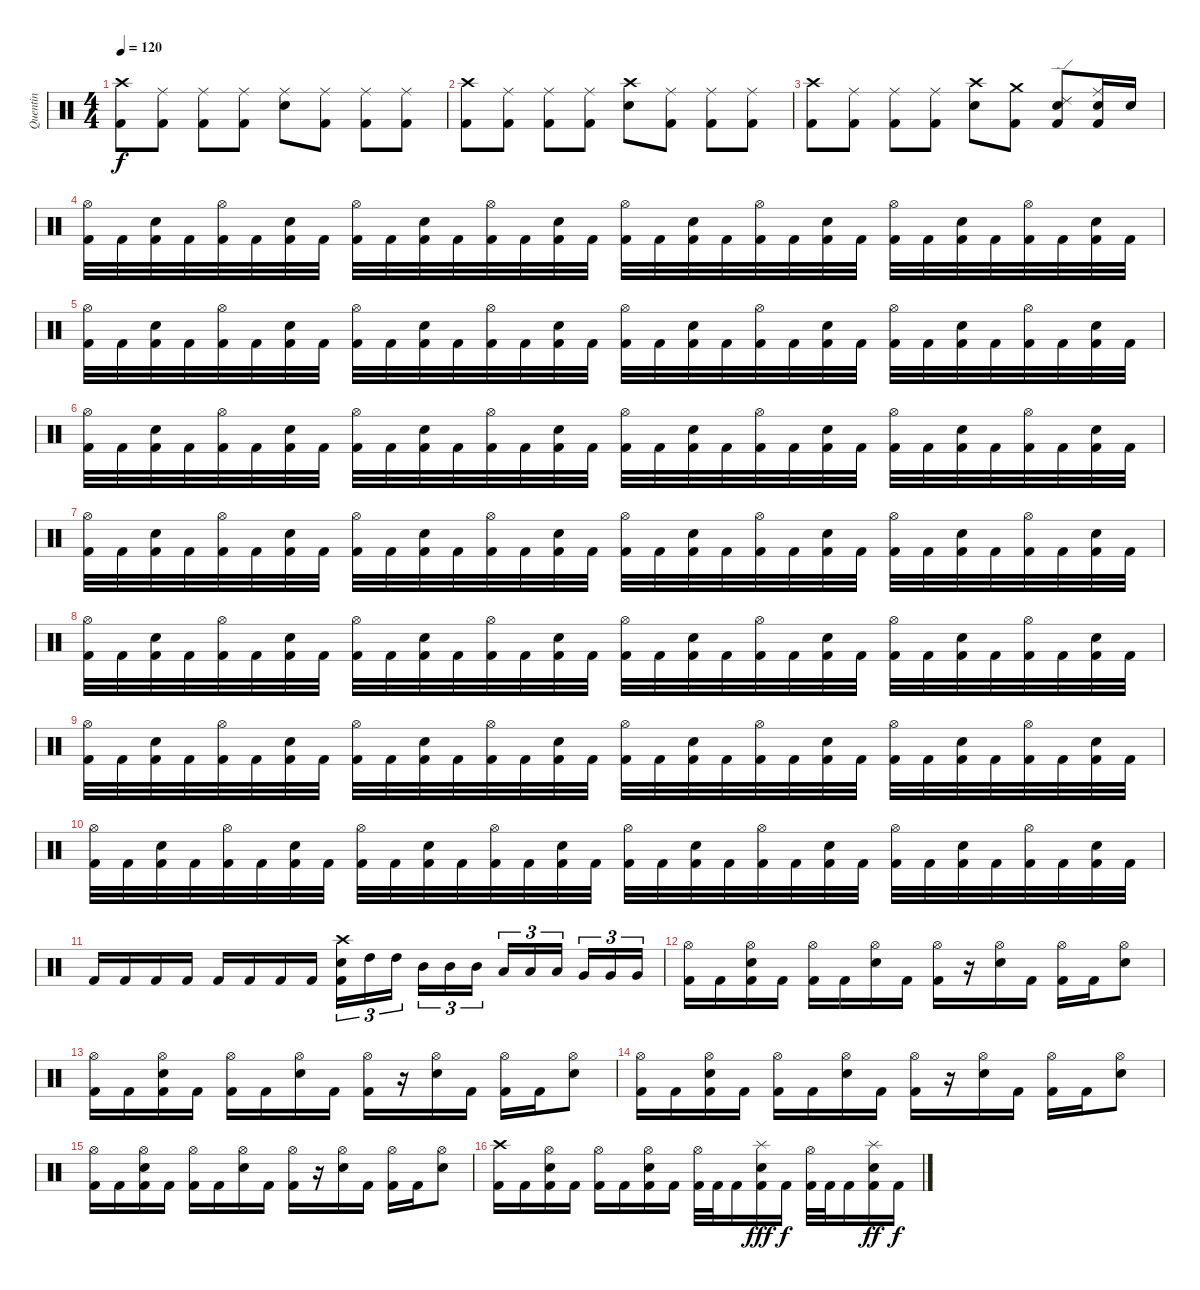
\track ("Quentin" "Quentin") {instrument percussion}
\staff {score}
\articulation defaults
\ts (4 4)
\tempo 120
\clef neutral
\ks c
("Crash high (hit)" "Kick (hit) 2").8{dy f} ("Ride (middle)" "Kick (hit) 2").8 ("Ride (middle)" "Kick (hit) 2").8 ("Ride (middle)" "Kick (hit) 2").8 ("Ride (middle)" "Electric Snare (hit)").8 ("Ride (middle)" "Kick (hit) 2").8 ("Ride (middle)" "Kick (hit) 2").8 ("Ride (middle)" "Kick (hit) 2").8 |
("Crash high (hit)" "Kick (hit) 2").8 ("Ride (middle)" "Kick (hit) 2").8 ("Ride (middle)" "Kick (hit) 2").8 ("Ride (middle)" "Kick (hit) 2").8 ("Crash high (hit)" "Electric Snare (hit)").8 ("Ride (middle)" "Kick (hit) 2").8 ("Ride (middle)" "Kick (hit) 2").8 ("Ride (middle)" "Kick (hit) 2").8 |
("Crash high (hit)" "Kick (hit) 2").8 ("Ride (middle)" "Kick (hit) 2").8 ("Ride (middle)" "Kick (hit) 2").8 ("Ride (middle)" "Kick (hit) 2").8 ("Crash high (hit)" "Electric Snare (hit)").8 ("Crash medium (hit)" "Kick (hit) 2").8 ("Ride (edge) 2" "Electric Snare (hit)" "Kick (hit) 2").8 ("Ride (middle)" "Electric Snare (hit)" "Kick (hit) 2").16 "Electric Snare (hit)".16 |
("Hi-Hat (open)" "Kick (hit) 2").32 "Kick (hit) 2".32 ("Snare (hit) 2" "Kick (hit) 2").32 "Kick (hit) 2".32 ("Hi-Hat (open)" "Kick (hit) 2").32 "Kick (hit) 2".32 ("Snare (hit) 2" "Kick (hit) 2").32 "Kick (hit) 2".32 ("Hi-Hat (open)" "Kick (hit) 2").32 "Kick (hit) 2".32 ("Snare (hit) 2" "Kick (hit) 2").32 "Kick (hit) 2".32 ("Hi-Hat (open)" "Kick (hit) 2").32 "Kick (hit) 2".32 ("Snare (hit) 2" "Kick (hit) 2").32 "Kick (hit) 2".32 ("Hi-Hat (open)" "Kick (hit) 2").32 "Kick (hit) 2".32 ("Snare (hit) 2" "Kick (hit) 2").32 "Kick (hit) 2".32 ("Hi-Hat (open)" "Kick (hit) 2").32 "Kick (hit) 2".32 ("Snare (hit) 2" "Kick (hit) 2").32 "Kick (hit) 2".32 ("Hi-Hat (open)" "Kick (hit) 2").32 "Kick (hit) 2".32 ("Snare (hit) 2" "Kick (hit) 2").32 "Kick (hit) 2".32 ("Hi-Hat (open)" "Kick (hit) 2").32 "Kick (hit) 2".32 ("Snare (hit) 2" "Kick (hit) 2").32 "Kick (hit) 2".32 |
("Hi-Hat (open)" "Kick (hit) 2").32 "Kick (hit) 2".32 ("Snare (hit) 2" "Kick (hit) 2").32 "Kick (hit) 2".32 ("Hi-Hat (open)" "Kick (hit) 2").32 "Kick (hit) 2".32 ("Snare (hit) 2" "Kick (hit) 2").32 "Kick (hit) 2".32 ("Hi-Hat (open)" "Kick (hit) 2").32 "Kick (hit) 2".32 ("Snare (hit) 2" "Kick (hit) 2").32 "Kick (hit) 2".32 ("Hi-Hat (open)" "Kick (hit) 2").32 "Kick (hit) 2".32 ("Snare (hit) 2" "Kick (hit) 2").32 "Kick (hit) 2".32 ("Hi-Hat (open)" "Kick (hit) 2").32 "Kick (hit) 2".32 ("Snare (hit) 2" "Kick (hit) 2").32 "Kick (hit) 2".32 ("Hi-Hat (open)" "Kick (hit) 2").32 "Kick (hit) 2".32 ("Snare (hit) 2" "Kick (hit) 2").32 "Kick (hit) 2".32 ("Hi-Hat (open)" "Kick (hit) 2").32 "Kick (hit) 2".32 ("Snare (hit) 2" "Kick (hit) 2").32 "Kick (hit) 2".32 ("Hi-Hat (open)" "Kick (hit) 2").32 "Kick (hit) 2".32 ("Snare (hit) 2" "Kick (hit) 2").32 "Kick (hit) 2".32 |
("Hi-Hat (open)" "Kick (hit) 2").32 "Kick (hit) 2".32 ("Snare (hit) 2" "Kick (hit) 2").32 "Kick (hit) 2".32 ("Hi-Hat (open)" "Kick (hit) 2").32 "Kick (hit) 2".32 ("Snare (hit) 2" "Kick (hit) 2").32 "Kick (hit) 2".32 ("Hi-Hat (open)" "Kick (hit) 2").32 "Kick (hit) 2".32 ("Snare (hit) 2" "Kick (hit) 2").32 "Kick (hit) 2".32 ("Hi-Hat (open)" "Kick (hit) 2").32 "Kick (hit) 2".32 ("Snare (hit) 2" "Kick (hit) 2").32 "Kick (hit) 2".32 ("Hi-Hat (open)" "Kick (hit) 2").32 "Kick (hit) 2".32 ("Snare (hit) 2" "Kick (hit) 2").32 "Kick (hit) 2".32 ("Hi-Hat (open)" "Kick (hit) 2").32 "Kick (hit) 2".32 ("Snare (hit) 2" "Kick (hit) 2").32 "Kick (hit) 2".32 ("Hi-Hat (open)" "Kick (hit) 2").32 "Kick (hit) 2".32 ("Snare (hit) 2" "Kick (hit) 2").32 "Kick (hit) 2".32 ("Hi-Hat (open)" "Kick (hit) 2").32 "Kick (hit) 2".32 ("Snare (hit) 2" "Kick (hit) 2").32 "Kick (hit) 2".32 |
("Hi-Hat (open)" "Kick (hit) 2").32 "Kick (hit) 2".32 ("Snare (hit) 2" "Kick (hit) 2").32 "Kick (hit) 2".32 ("Hi-Hat (open)" "Kick (hit) 2").32 "Kick (hit) 2".32 ("Snare (hit) 2" "Kick (hit) 2").32 "Kick (hit) 2".32 ("Hi-Hat (open)" "Kick (hit) 2").32 "Kick (hit) 2".32 ("Snare (hit) 2" "Kick (hit) 2").32 "Kick (hit) 2".32 ("Hi-Hat (open)" "Kick (hit) 2").32 "Kick (hit) 2".32 ("Snare (hit) 2" "Kick (hit) 2").32 "Kick (hit) 2".32 ("Hi-Hat (open)" "Kick (hit) 2").32 "Kick (hit) 2".32 ("Snare (hit) 2" "Kick (hit) 2").32 "Kick (hit) 2".32 ("Hi-Hat (open)" "Kick (hit) 2").32 "Kick (hit) 2".32 ("Snare (hit) 2" "Kick (hit) 2").32 "Kick (hit) 2".32 ("Hi-Hat (open)" "Kick (hit) 2").32 "Kick (hit) 2".32 ("Snare (hit) 2" "Kick (hit) 2").32 "Kick (hit) 2".32 ("Hi-Hat (open)" "Kick (hit) 2").32 "Kick (hit) 2".32 ("Snare (hit) 2" "Kick (hit) 2").32 "Kick (hit) 2".32 |
("Hi-Hat (open)" "Kick (hit) 2").32 "Kick (hit) 2".32 ("Snare (hit) 2" "Kick (hit) 2").32 "Kick (hit) 2".32 ("Hi-Hat (open)" "Kick (hit) 2").32 "Kick (hit) 2".32 ("Snare (hit) 2" "Kick (hit) 2").32 "Kick (hit) 2".32 ("Hi-Hat (open)" "Kick (hit) 2").32 "Kick (hit) 2".32 ("Snare (hit) 2" "Kick (hit) 2").32 "Kick (hit) 2".32 ("Hi-Hat (open)" "Kick (hit) 2").32 "Kick (hit) 2".32 ("Snare (hit) 2" "Kick (hit) 2").32 "Kick (hit) 2".32 ("Hi-Hat (open)" "Kick (hit) 2").32 "Kick (hit) 2".32 ("Snare (hit) 2" "Kick (hit) 2").32 "Kick (hit) 2".32 ("Hi-Hat (open)" "Kick (hit) 2").32 "Kick (hit) 2".32 ("Snare (hit) 2" "Kick (hit) 2").32 "Kick (hit) 2".32 ("Hi-Hat (open)" "Kick (hit) 2").32 "Kick (hit) 2".32 ("Snare (hit) 2" "Kick (hit) 2").32 "Kick (hit) 2".32 ("Hi-Hat (open)" "Kick (hit) 2").32 "Kick (hit) 2".32 ("Snare (hit) 2" "Kick (hit) 2").32 "Kick (hit) 2".32 |
("Hi-Hat (open)" "Kick (hit) 2").32 "Kick (hit) 2".32 ("Snare (hit) 2" "Kick (hit) 2").32 "Kick (hit) 2".32 ("Hi-Hat (open)" "Kick (hit) 2").32 "Kick (hit) 2".32 ("Snare (hit) 2" "Kick (hit) 2").32 "Kick (hit) 2".32 ("Hi-Hat (open)" "Kick (hit) 2").32 "Kick (hit) 2".32 ("Snare (hit) 2" "Kick (hit) 2").32 "Kick (hit) 2".32 ("Hi-Hat (open)" "Kick (hit) 2").32 "Kick (hit) 2".32 ("Snare (hit) 2" "Kick (hit) 2").32 "Kick (hit) 2".32 ("Hi-Hat (open)" "Kick (hit) 2").32 "Kick (hit) 2".32 ("Snare (hit) 2" "Kick (hit) 2").32 "Kick (hit) 2".32 ("Hi-Hat (open)" "Kick (hit) 2").32 "Kick (hit) 2".32 ("Snare (hit) 2" "Kick (hit) 2").32 "Kick (hit) 2".32 ("Hi-Hat (open)" "Kick (hit) 2").32 "Kick (hit) 2".32 ("Snare (hit) 2" "Kick (hit) 2").32 "Kick (hit) 2".32 ("Hi-Hat (open)" "Kick (hit) 2").32 "Kick (hit) 2".32 ("Snare (hit) 2" "Kick (hit) 2").32 "Kick (hit) 2".32 |
("Hi-Hat (open)" "Kick (hit) 2").32 "Kick (hit) 2".32 ("Snare (hit) 2" "Kick (hit) 2").32 "Kick (hit) 2".32 ("Hi-Hat (open)" "Kick (hit) 2").32 "Kick (hit) 2".32 ("Snare (hit) 2" "Kick (hit) 2").32 "Kick (hit) 2".32 ("Hi-Hat (open)" "Kick (hit) 2").32 "Kick (hit) 2".32 ("Snare (hit) 2" "Kick (hit) 2").32 "Kick (hit) 2".32 ("Hi-Hat (open)" "Kick (hit) 2").32 "Kick (hit) 2".32 ("Snare (hit) 2" "Kick (hit) 2").32 "Kick (hit) 2".32 ("Hi-Hat (open)" "Kick (hit) 2").32 "Kick (hit) 2".32 ("Snare (hit) 2" "Kick (hit) 2").32 "Kick (hit) 2".32 ("Hi-Hat (open)" "Kick (hit) 2").32 "Kick (hit) 2".32 ("Snare (hit) 2" "Kick (hit) 2").32 "Kick (hit) 2".32 ("Hi-Hat (open)" "Kick (hit) 2").32 "Kick (hit) 2".32 ("Snare (hit) 2" "Kick (hit) 2").32 "Kick (hit) 2".32 ("Hi-Hat (open)" "Kick (hit) 2").32 "Kick (hit) 2".32 ("Snare (hit) 2" "Kick (hit) 2").32 "Kick (hit) 2".32 |
"Kick (hit) 2".16 "Kick (hit) 2".16 "Kick (hit) 2".16 "Kick (hit) 2".16 "Kick (hit) 2".16 "Kick (hit) 2".16 "Kick (hit) 2".16 "Kick (hit) 2".16 ("Crash high (hit)" "Snare (hit) 2" "Kick (hit) 2").16{tu (3 2)} "High Tom (hit)".16{tu (3 2)} "High Tom (hit)".16{tu (3 2)} "Mid Tom (hit)".16{tu (3 2)} "Mid Tom (hit)".16{tu (3 2)} "Mid Tom (hit)".16{tu (3 2)} "Low Tom (hit)".16{tu (3 2)} "Low Tom (hit)".16{tu (3 2)} "Low Tom (hit)".16{tu (3 2)} "Very Low Tom (hit)".16{tu (3 2)} "Very Low Tom (hit)".16{tu (3 2)} "Very Low Tom (hit)".16{tu (3 2)} |
("Hi-Hat (open)" "Kick (hit) 2").16 "Kick (hit) 2".16 ("Hi-Hat (open)" "Snare (hit) 2" "Kick (hit) 2").16 "Kick (hit) 2".16 ("Hi-Hat (open)" "Kick (hit) 2").16 "Kick (hit) 2".16 ("Hi-Hat (open)" "Snare (hit) 2").16 "Kick (hit) 2".16 ("Hi-Hat (open)" "Kick (hit) 2").16 r.16 ("Hi-Hat (open)" "Snare (hit) 2").16 "Kick (hit) 2".16 ("Hi-Hat (open)" "Kick (hit) 2").16 "Kick (hit) 2".16 ("Hi-Hat (open)" "Snare (hit) 2").8 |
("Hi-Hat (open)" "Kick (hit) 2").16 "Kick (hit) 2".16 ("Hi-Hat (open)" "Snare (hit) 2" "Kick (hit) 2").16 "Kick (hit) 2".16 ("Hi-Hat (open)" "Kick (hit) 2").16 "Kick (hit) 2".16 ("Hi-Hat (open)" "Snare (hit) 2").16 "Kick (hit) 2".16 ("Hi-Hat (open)" "Kick (hit) 2").16 r.16 ("Hi-Hat (open)" "Snare (hit) 2").16 "Kick (hit) 2".16 ("Hi-Hat (open)" "Kick (hit) 2").16 "Kick (hit) 2".16 ("Hi-Hat (open)" "Snare (hit) 2").8 |
("Hi-Hat (open)" "Kick (hit) 2").16 "Kick (hit) 2".16 ("Hi-Hat (open)" "Snare (hit) 2" "Kick (hit) 2").16 "Kick (hit) 2".16 ("Hi-Hat (open)" "Kick (hit) 2").16 "Kick (hit) 2".16 ("Hi-Hat (open)" "Snare (hit) 2").16 "Kick (hit) 2".16 ("Hi-Hat (open)" "Kick (hit) 2").16 r.16 ("Hi-Hat (open)" "Snare (hit) 2").16 "Kick (hit) 2".16 ("Hi-Hat (open)" "Kick (hit) 2").16 "Kick (hit) 2".16 ("Hi-Hat (open)" "Snare (hit) 2").8 |
("Hi-Hat (open)" "Kick (hit) 2").16 "Kick (hit) 2".16 ("Hi-Hat (open)" "Snare (hit) 2" "Kick (hit) 2").16 "Kick (hit) 2".16 ("Hi-Hat (open)" "Kick (hit) 2").16 "Kick (hit) 2".16 ("Hi-Hat (open)" "Snare (hit) 2").16 "Kick (hit) 2".16 ("Hi-Hat (open)" "Kick (hit) 2").16 r.16 ("Hi-Hat (open)" "Snare (hit) 2").16 "Kick (hit) 2".16 ("Hi-Hat (open)" "Kick (hit) 2").16 "Kick (hit) 2".16 ("Hi-Hat (open)" "Snare (hit) 2").8 |
("Crash high (hit)" "Kick (hit) 2").16 "Kick (hit) 2".16 ("Hi-Hat (open)" "Snare (hit) 2" "Kick (hit) 2").16 "Kick (hit) 2".16 ("Hi-Hat (open)" "Kick (hit) 2").16 "Kick (hit) 2".16 ("Hi-Hat (open)" "Snare (hit) 2" "Kick (hit) 2").16 "Kick (hit) 2".16 ("Hi-Hat (open)" "Kick (hit) 2").32 "Kick (hit) 2".32 "Kick (hit) 2".16 ("Splash (hit)" "Snare (hit) 2" "Kick (hit) 2").16{dy fff} "Kick (hit) 2".16{dy f} ("Hi-Hat (open)" "Kick (hit) 2").32 "Kick (hit) 2".32 "Kick (hit) 2".16 ("Splash (hit)" "Snare (hit) 2" "Kick (hit) 2").16{dy ff} "Kick (hit) 2".16{dy f}
